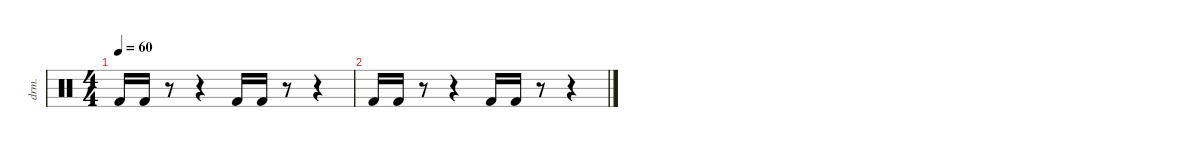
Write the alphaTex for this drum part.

\defaultSystemsLayout 4
\hideDynamics
\bracketExtendMode nobrackets
\otherSystemsTrackNameOrientation horizontal
\track ("Drumkit" "drm.") {instrument percussion}
\staff {score}
\articulation defaults
\ts (4 4)
\tempo 60
\clef neutral
\ks c "Kick (hit) 2".16{dy mf beam Up} "Kick (hit) 2".16{beam Up}
r.8{beam Up} r.4{beam Up} "Kick (hit) 2".16{beam Up} "Kick (hit) 2".16{beam Up} r.8{beam Up} r.4{beam Up} |
"Kick (hit) 2".16{beam Up} "Kick (hit) 2".16{beam Up} r.8{beam Up} r.4{beam Up} "Kick (hit) 2".16{beam Up} "Kick (hit) 2".16{beam Up} r.8{beam Up} r.4{beam Up}
